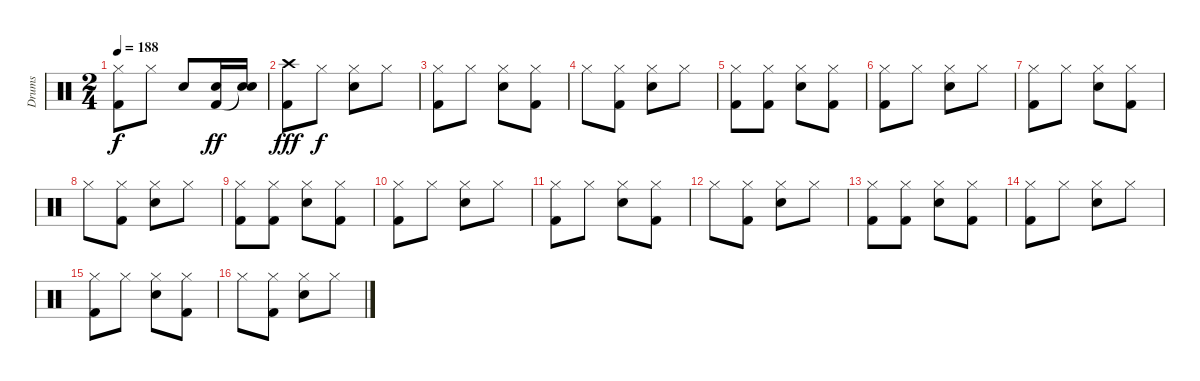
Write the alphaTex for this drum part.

\track ("Drums" "Drums") {instrument percussion}
\staff {score}
\articulation defaults
\ts (2 4)
\tempo 188
\clef neutral
\ks c
("Hi-Hat (closed)" "Kick (hit) 2").8{dy f} "Hi-Hat (closed)".8 "Snare (hit) 2".8 ("Snare (hit) 2" "Kick (hit) 2").16{dy ff} ("Snare (hit) 2" "Snare (hit)"{t}).16 |
("Crash high (hit)" "Kick (hit) 2").8{dy fff} "Hi-Hat (closed)".8{dy f} ("Hi-Hat (closed)" "Snare (hit) 2").8 "Hi-Hat (closed)".8 |
("Hi-Hat (closed)" "Kick (hit) 2").8 "Hi-Hat (closed)".8 ("Hi-Hat (closed)" "Snare (hit) 2").8 ("Hi-Hat (closed)" "Kick (hit) 2").8 |
"Hi-Hat (closed)".8 ("Hi-Hat (closed)" "Kick (hit) 2").8 ("Hi-Hat (closed)" "Snare (hit) 2").8 "Hi-Hat (closed)".8 |
("Hi-Hat (closed)" "Kick (hit) 2").8 ("Hi-Hat (closed)" "Kick (hit) 2").8 ("Hi-Hat (closed)" "Snare (hit) 2").8 ("Hi-Hat (closed)" "Kick (hit) 2").8 |
("Hi-Hat (closed)" "Kick (hit) 2").8 "Hi-Hat (closed)".8 ("Hi-Hat (closed)" "Snare (hit) 2").8 "Hi-Hat (closed)".8 |
("Hi-Hat (closed)" "Kick (hit) 2").8 "Hi-Hat (closed)".8 ("Hi-Hat (closed)" "Snare (hit) 2").8 ("Hi-Hat (closed)" "Kick (hit) 2").8 |
"Hi-Hat (closed)".8 ("Hi-Hat (closed)" "Kick (hit) 2").8 ("Hi-Hat (closed)" "Snare (hit) 2").8 "Hi-Hat (closed)".8 |
("Hi-Hat (closed)" "Kick (hit) 2").8 ("Hi-Hat (closed)" "Kick (hit) 2").8 ("Hi-Hat (closed)" "Snare (hit) 2").8 ("Hi-Hat (closed)" "Kick (hit) 2").8 |
("Hi-Hat (closed)" "Kick (hit) 2").8 "Hi-Hat (closed)".8 ("Hi-Hat (closed)" "Snare (hit) 2").8 "Hi-Hat (closed)".8 |
("Hi-Hat (closed)" "Kick (hit) 2").8 "Hi-Hat (closed)".8 ("Hi-Hat (closed)" "Snare (hit) 2").8 ("Hi-Hat (closed)" "Kick (hit) 2").8 |
"Hi-Hat (closed)".8 ("Hi-Hat (closed)" "Kick (hit) 2").8 ("Hi-Hat (closed)" "Snare (hit) 2").8 "Hi-Hat (closed)".8 |
("Hi-Hat (closed)" "Kick (hit) 2").8 ("Hi-Hat (closed)" "Kick (hit) 2").8 ("Hi-Hat (closed)" "Snare (hit) 2").8 ("Hi-Hat (closed)" "Kick (hit) 2").8 |
("Hi-Hat (closed)" "Kick (hit) 2").8 "Hi-Hat (closed)".8 ("Hi-Hat (closed)" "Snare (hit) 2").8 "Hi-Hat (closed)".8 |
("Hi-Hat (closed)" "Kick (hit) 2").8 "Hi-Hat (closed)".8 ("Hi-Hat (closed)" "Snare (hit) 2").8 ("Hi-Hat (closed)" "Kick (hit) 2").8 |
"Hi-Hat (closed)".8 ("Hi-Hat (closed)" "Kick (hit) 2").8 ("Hi-Hat (closed)" "Snare (hit) 2").8 "Hi-Hat (closed)".8
